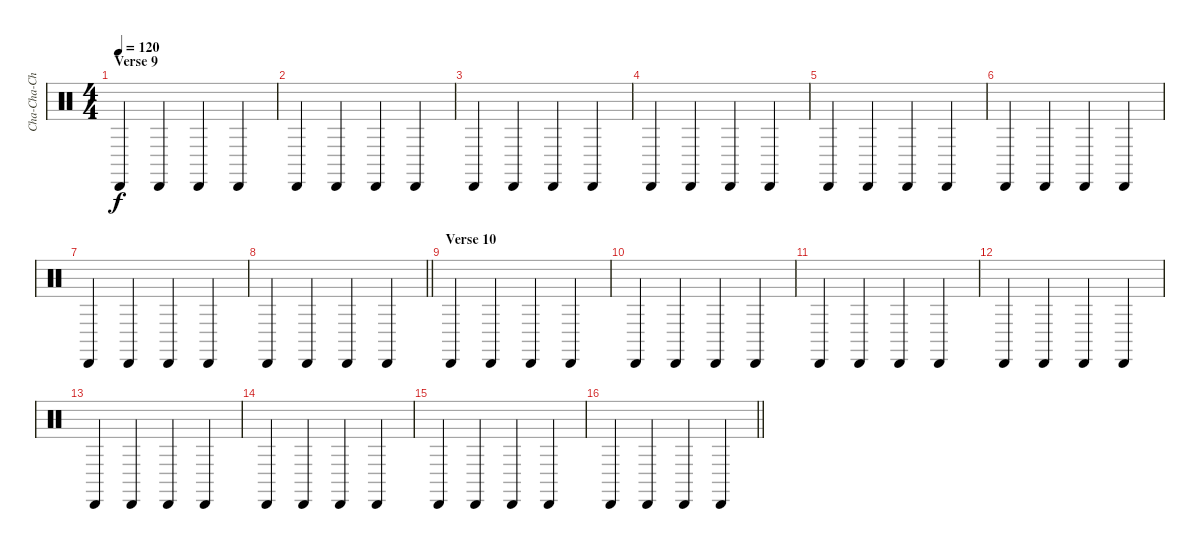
\track ("Cha-Cha-Cha's" "Cha-Cha-Ch") {instrument percussion}
\staff {score}
\articulation defaults
\ts (4 4)
\section ("" "Verse 9")
\tempo 120
\clef neutral
\ks c "Cabasa (hit)".4{dy f} "Cabasa (hit)".4 "Cabasa (hit)".4 "Cabasa (hit)".4
|
"Cabasa (hit)".4 "Cabasa (hit)".4 "Cabasa (hit)".4 "Cabasa (hit)".4 |
"Cabasa (hit)".4 "Cabasa (hit)".4 "Cabasa (hit)".4 "Cabasa (hit)".4 |
"Cabasa (hit)".4 "Cabasa (hit)".4 "Cabasa (hit)".4 "Cabasa (hit)".4 |
"Cabasa (hit)".4 "Cabasa (hit)".4 "Cabasa (hit)".4 "Cabasa (hit)".4 |
"Cabasa (hit)".4 "Cabasa (hit)".4 "Cabasa (hit)".4 "Cabasa (hit)".4 |
"Cabasa (hit)".4 "Cabasa (hit)".4 "Cabasa (hit)".4 "Cabasa (hit)".4 |
\barLineRight lightlight "Cabasa (hit)".4 "Cabasa (hit)".4 "Cabasa (hit)".4 "Cabasa (hit)".4
|
\section ("" "Verse 10")
"Cabasa (hit)".4 "Cabasa (hit)".4 "Cabasa (hit)".4 "Cabasa (hit)".4 |
"Cabasa (hit)".4 "Cabasa (hit)".4 "Cabasa (hit)".4 "Cabasa (hit)".4 |
"Cabasa (hit)".4 "Cabasa (hit)".4 "Cabasa (hit)".4 "Cabasa (hit)".4 |
"Cabasa (hit)".4 "Cabasa (hit)".4 "Cabasa (hit)".4 "Cabasa (hit)".4 |
"Cabasa (hit)".4 "Cabasa (hit)".4 "Cabasa (hit)".4 "Cabasa (hit)".4 |
"Cabasa (hit)".4 "Cabasa (hit)".4 "Cabasa (hit)".4 "Cabasa (hit)".4 |
"Cabasa (hit)".4 "Cabasa (hit)".4 "Cabasa (hit)".4 "Cabasa (hit)".4 |
\barLineRight lightlight "Cabasa (hit)".4 "Cabasa (hit)".4 "Cabasa (hit)".4 "Cabasa (hit)".4
